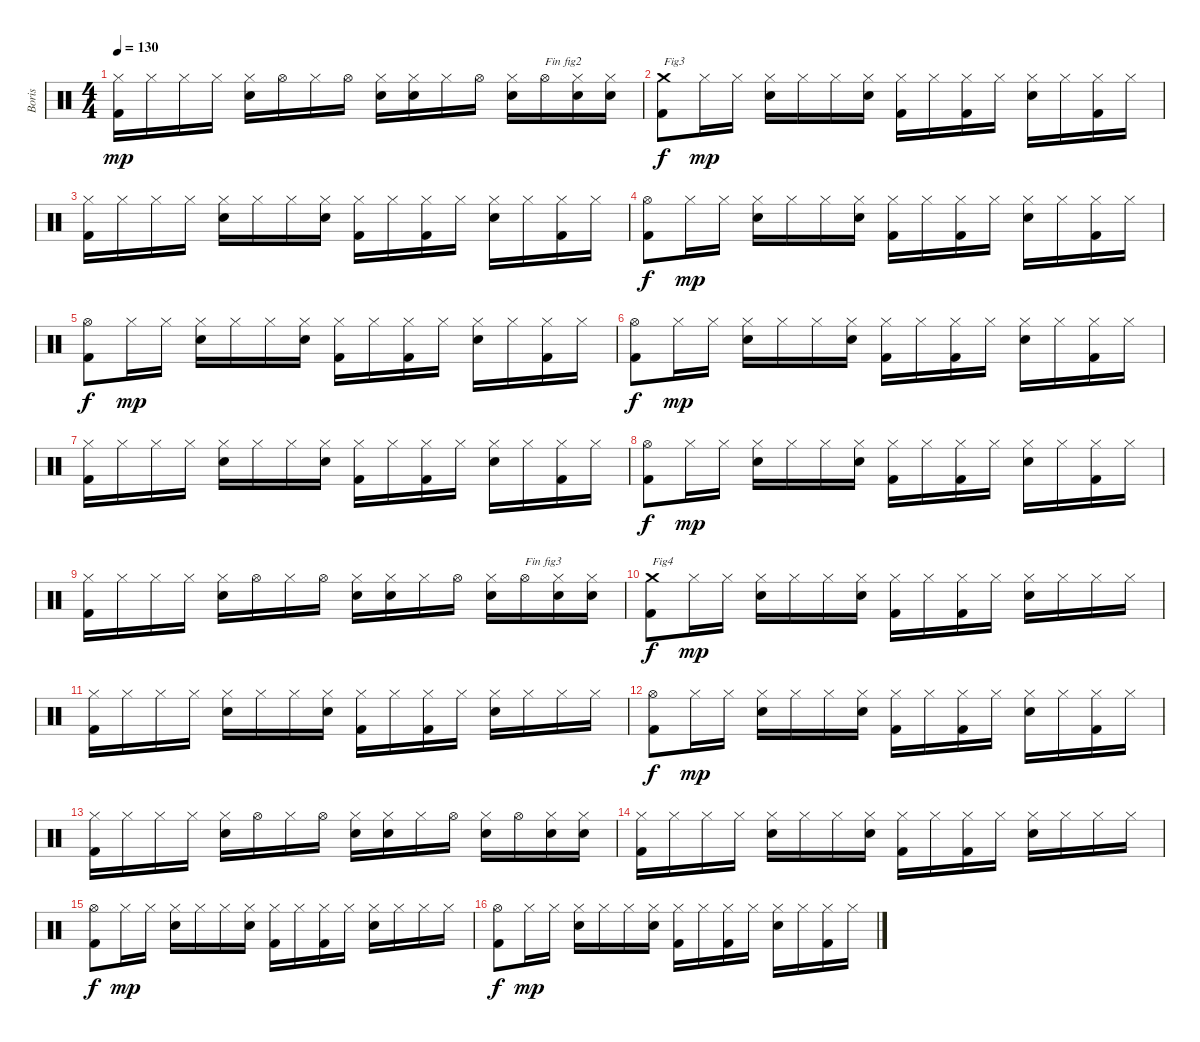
\track ("Boris" "Boris") {instrument percussion}
\staff {score}
\articulation defaults
\ts (4 4)
\tempo 130
\clef neutral
\ks c
("Kick (hit) 2" "Hi-Hat (closed)").16{dy mp} "Hi-Hat (closed)".16 "Hi-Hat (closed)".16 "Hi-Hat (closed)".16 ("Electric Snare (hit)" "Hi-Hat (closed)").16 "Hi-Hat (open)".16 "Hi-Hat (closed)".16 "Hi-Hat (open)".16 ("Electric Snare (hit)" "Hi-Hat (closed)").16 ("Electric Snare (hit)" "Hi-Hat (closed)").16 "Hi-Hat (closed)".16 "Hi-Hat (open)".16 ("Electric Snare (hit)" "Hi-Hat (closed)").16 "Hi-Hat (open)".16{txt "Fin fig2"} ("Electric Snare (hit)" "Hi-Hat (closed)").16 ("Electric Snare (hit)" "Hi-Hat (closed)").16 |
("Kick (hit) 2" "Crash medium (hit)").8{txt "Fig3" dy f} "Hi-Hat (closed)".16{dy mp} "Hi-Hat (closed)".16 ("Electric Snare (hit)" "Hi-Hat (closed)").16 "Hi-Hat (closed)".16 "Hi-Hat (closed)".16 ("Electric Snare (hit)" "Hi-Hat (closed)").16 ("Kick (hit) 2" "Hi-Hat (closed)").16 "Hi-Hat (closed)".16 ("Kick (hit) 2" "Hi-Hat (closed)").16 "Hi-Hat (closed)".16 ("Electric Snare (hit)" "Hi-Hat (closed)").16 "Hi-Hat (closed)".16 ("Kick (hit) 2" "Hi-Hat (closed)").16 "Hi-Hat (closed)".16 |
("Kick (hit) 2" "Hi-Hat (closed)").16 "Hi-Hat (closed)".16 "Hi-Hat (closed)".16 "Hi-Hat (closed)".16 ("Electric Snare (hit)" "Hi-Hat (closed)").16 "Hi-Hat (closed)".16 "Hi-Hat (closed)".16 ("Electric Snare (hit)" "Hi-Hat (closed)").16 ("Kick (hit) 2" "Hi-Hat (closed)").16 "Hi-Hat (closed)".16 ("Kick (hit) 2" "Hi-Hat (closed)").16 "Hi-Hat (closed)".16 ("Electric Snare (hit)" "Hi-Hat (closed)").16 "Hi-Hat (closed)".16 ("Kick (hit) 2" "Hi-Hat (closed)").16 "Hi-Hat (closed)".16 |
("Kick (hit) 2" "Hi-Hat (open)").8{dy f} "Hi-Hat (closed)".16{dy mp} "Hi-Hat (closed)".16 ("Electric Snare (hit)" "Hi-Hat (closed)").16 "Hi-Hat (closed)".16 "Hi-Hat (closed)".16 ("Electric Snare (hit)" "Hi-Hat (closed)").16 ("Kick (hit) 2" "Hi-Hat (closed)").16 "Hi-Hat (closed)".16 ("Kick (hit) 2" "Hi-Hat (closed)").16 "Hi-Hat (closed)".16 ("Electric Snare (hit)" "Hi-Hat (closed)").16 "Hi-Hat (closed)".16 ("Kick (hit) 2" "Hi-Hat (closed)").16 "Hi-Hat (closed)".16 |
("Kick (hit) 2" "Hi-Hat (open)").8{dy f} "Hi-Hat (closed)".16{dy mp} "Hi-Hat (closed)".16 ("Electric Snare (hit)" "Hi-Hat (closed)").16 "Hi-Hat (closed)".16 "Hi-Hat (closed)".16 ("Electric Snare (hit)" "Hi-Hat (closed)").16 ("Kick (hit) 2" "Hi-Hat (closed)").16 "Hi-Hat (closed)".16 ("Kick (hit) 2" "Hi-Hat (closed)").16 "Hi-Hat (closed)".16 ("Electric Snare (hit)" "Hi-Hat (closed)").16 "Hi-Hat (closed)".16 ("Kick (hit) 2" "Hi-Hat (closed)").16 "Hi-Hat (closed)".16 |
("Kick (hit) 2" "Hi-Hat (open)").8{dy f} "Hi-Hat (closed)".16{dy mp} "Hi-Hat (closed)".16 ("Electric Snare (hit)" "Hi-Hat (closed)").16 "Hi-Hat (closed)".16 "Hi-Hat (closed)".16 ("Electric Snare (hit)" "Hi-Hat (closed)").16 ("Kick (hit) 2" "Hi-Hat (closed)").16 "Hi-Hat (closed)".16 ("Kick (hit) 2" "Hi-Hat (closed)").16 "Hi-Hat (closed)".16 ("Electric Snare (hit)" "Hi-Hat (closed)").16 "Hi-Hat (closed)".16 ("Kick (hit) 2" "Hi-Hat (closed)").16 "Hi-Hat (closed)".16 |
("Kick (hit) 2" "Hi-Hat (closed)").16 "Hi-Hat (closed)".16 "Hi-Hat (closed)".16 "Hi-Hat (closed)".16 ("Electric Snare (hit)" "Hi-Hat (closed)").16 "Hi-Hat (closed)".16 "Hi-Hat (closed)".16 ("Electric Snare (hit)" "Hi-Hat (closed)").16 ("Kick (hit) 2" "Hi-Hat (closed)").16 "Hi-Hat (closed)".16 ("Kick (hit) 2" "Hi-Hat (closed)").16 "Hi-Hat (closed)".16 ("Electric Snare (hit)" "Hi-Hat (closed)").16 "Hi-Hat (closed)".16 ("Kick (hit) 2" "Hi-Hat (closed)").16 "Hi-Hat (closed)".16 |
("Kick (hit) 2" "Hi-Hat (open)").8{dy f} "Hi-Hat (closed)".16{dy mp} "Hi-Hat (closed)".16 ("Electric Snare (hit)" "Hi-Hat (closed)").16 "Hi-Hat (closed)".16 "Hi-Hat (closed)".16 ("Electric Snare (hit)" "Hi-Hat (closed)").16 ("Kick (hit) 2" "Hi-Hat (closed)").16 "Hi-Hat (closed)".16 ("Kick (hit) 2" "Hi-Hat (closed)").16 "Hi-Hat (closed)".16 ("Electric Snare (hit)" "Hi-Hat (closed)").16 "Hi-Hat (closed)".16 ("Kick (hit) 2" "Hi-Hat (closed)").16 "Hi-Hat (closed)".16 |
("Kick (hit) 2" "Hi-Hat (closed)").16 "Hi-Hat (closed)".16 "Hi-Hat (closed)".16 "Hi-Hat (closed)".16 ("Electric Snare (hit)" "Hi-Hat (closed)").16 "Hi-Hat (open)".16 "Hi-Hat (closed)".16 "Hi-Hat (open)".16 ("Electric Snare (hit)" "Hi-Hat (closed)").16 ("Electric Snare (hit)" "Hi-Hat (closed)").16 "Hi-Hat (closed)".16 "Hi-Hat (open)".16 ("Electric Snare (hit)" "Hi-Hat (closed)").16 "Hi-Hat (open)".16{txt "Fin fig3"} ("Electric Snare (hit)" "Hi-Hat (closed)").16 ("Electric Snare (hit)" "Hi-Hat (closed)").16 |
("Kick (hit) 2" "Crash medium (hit)").8{txt "Fig4" dy f} "Hi-Hat (closed)".16{dy mp} "Hi-Hat (closed)".16 ("Electric Snare (hit)" "Hi-Hat (closed)").16 "Hi-Hat (closed)".16 "Hi-Hat (closed)".16 ("Electric Snare (hit)" "Hi-Hat (closed)").16 ("Kick (hit) 2" "Hi-Hat (closed)").16 "Hi-Hat (closed)".16 ("Kick (hit) 2" "Hi-Hat (closed)").16 "Hi-Hat (closed)".16 ("Electric Snare (hit)" "Hi-Hat (closed)").16 "Hi-Hat (closed)".16 "Hi-Hat (closed)".16 "Hi-Hat (closed)".16 |
("Kick (hit) 2" "Hi-Hat (closed)").16 "Hi-Hat (closed)".16 "Hi-Hat (closed)".16 "Hi-Hat (closed)".16 ("Electric Snare (hit)" "Hi-Hat (closed)").16 "Hi-Hat (closed)".16 "Hi-Hat (closed)".16 ("Electric Snare (hit)" "Hi-Hat (closed)").16 ("Kick (hit) 2" "Hi-Hat (closed)").16 "Hi-Hat (closed)".16 ("Kick (hit) 2" "Hi-Hat (closed)").16 "Hi-Hat (closed)".16 ("Electric Snare (hit)" "Hi-Hat (closed)").16 "Hi-Hat (closed)".16 "Hi-Hat (closed)".16 "Hi-Hat (closed)".16 |
("Kick (hit) 2" "Hi-Hat (open)").8{dy f} "Hi-Hat (closed)".16{dy mp} "Hi-Hat (closed)".16 ("Electric Snare (hit)" "Hi-Hat (closed)").16 "Hi-Hat (closed)".16 "Hi-Hat (closed)".16 ("Electric Snare (hit)" "Hi-Hat (closed)").16 ("Kick (hit) 2" "Hi-Hat (closed)").16 "Hi-Hat (closed)".16 ("Kick (hit) 2" "Hi-Hat (closed)").16 "Hi-Hat (closed)".16 ("Electric Snare (hit)" "Hi-Hat (closed)").16 "Hi-Hat (closed)".16 ("Kick (hit) 2" "Hi-Hat (closed)").16 "Hi-Hat (closed)".16 |
("Kick (hit) 2" "Hi-Hat (closed)").16 "Hi-Hat (closed)".16 "Hi-Hat (closed)".16 "Hi-Hat (closed)".16 ("Electric Snare (hit)" "Hi-Hat (closed)").16 "Hi-Hat (open)".16 "Hi-Hat (closed)".16 "Hi-Hat (open)".16 ("Electric Snare (hit)" "Hi-Hat (closed)").16 ("Electric Snare (hit)" "Hi-Hat (closed)").16 "Hi-Hat (closed)".16 "Hi-Hat (open)".16 ("Electric Snare (hit)" "Hi-Hat (closed)").16 "Hi-Hat (open)".16 ("Electric Snare (hit)" "Hi-Hat (closed)").16 ("Electric Snare (hit)" "Hi-Hat (closed)").16 |
("Kick (hit) 2" "Hi-Hat (closed)").16 "Hi-Hat (closed)".16 "Hi-Hat (closed)".16 "Hi-Hat (closed)".16 ("Electric Snare (hit)" "Hi-Hat (closed)").16 "Hi-Hat (closed)".16 "Hi-Hat (closed)".16 ("Electric Snare (hit)" "Hi-Hat (closed)").16 ("Kick (hit) 2" "Hi-Hat (closed)").16 "Hi-Hat (closed)".16 ("Kick (hit) 2" "Hi-Hat (closed)").16 "Hi-Hat (closed)".16 ("Electric Snare (hit)" "Hi-Hat (closed)").16 "Hi-Hat (closed)".16 "Hi-Hat (closed)".16 "Hi-Hat (closed)".16 |
("Kick (hit) 2" "Hi-Hat (open)").8{dy f} "Hi-Hat (closed)".16{dy mp} "Hi-Hat (closed)".16 ("Electric Snare (hit)" "Hi-Hat (closed)").16 "Hi-Hat (closed)".16 "Hi-Hat (closed)".16 ("Electric Snare (hit)" "Hi-Hat (closed)").16 ("Kick (hit) 2" "Hi-Hat (closed)").16 "Hi-Hat (closed)".16 ("Kick (hit) 2" "Hi-Hat (closed)").16 "Hi-Hat (closed)".16 ("Electric Snare (hit)" "Hi-Hat (closed)").16 "Hi-Hat (closed)".16 "Hi-Hat (closed)".16 "Hi-Hat (closed)".16 |
("Kick (hit) 2" "Hi-Hat (open)").8{dy f} "Hi-Hat (closed)".16{dy mp} "Hi-Hat (closed)".16 ("Electric Snare (hit)" "Hi-Hat (closed)").16 "Hi-Hat (closed)".16 "Hi-Hat (closed)".16 ("Electric Snare (hit)" "Hi-Hat (closed)").16 ("Kick (hit) 2" "Hi-Hat (closed)").16 "Hi-Hat (closed)".16 ("Kick (hit) 2" "Hi-Hat (closed)").16 "Hi-Hat (closed)".16 ("Electric Snare (hit)" "Hi-Hat (closed)").16 "Hi-Hat (closed)".16 ("Kick (hit) 2" "Hi-Hat (closed)").16 "Hi-Hat (closed)".16
